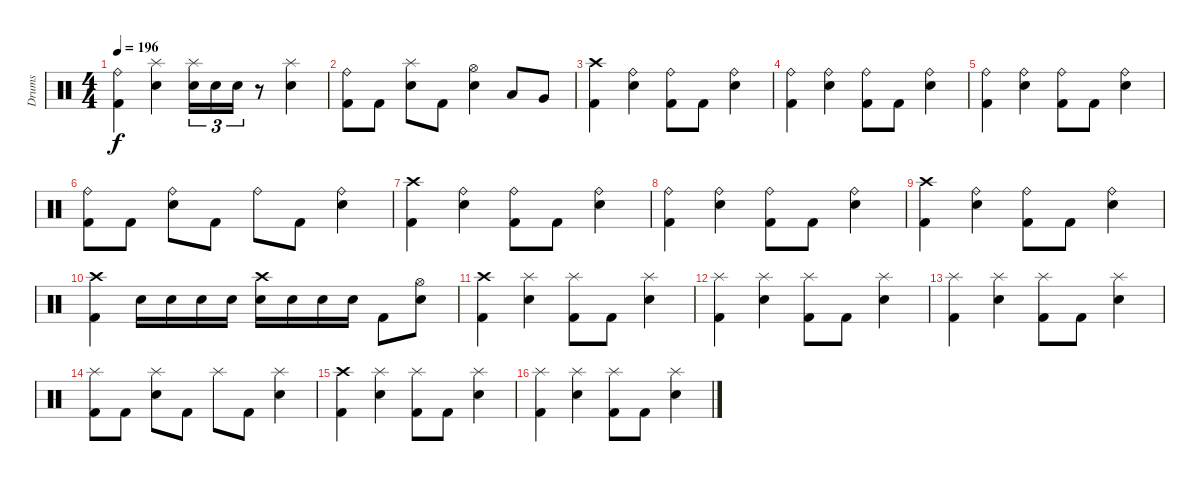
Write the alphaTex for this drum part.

\track ("Drums" "Drums") {instrument percussion}
\staff {score}
\articulation defaults
\ts (4 4)
\tempo 196
\clef neutral
\ks c
("Ride (bell)" "Kick (hit) 2").4{dy f} ("Splash (hit)" "Snare (hit) 2").4 ("Splash (hit)" "Snare (hit) 2").16{tu (3 2)} "Snare (hit) 2".16{tu (3 2)} "Snare (hit) 2".16{tu (3 2)} r.8 ("Splash (hit)" "Snare (hit) 2").4 |
("Ride (bell)" "Kick (hit) 2").8 "Kick (hit) 2".8 ("Splash (hit)" "Snare (hit) 2").8 "Kick (hit) 2".8 ("Hi-Hat (open)" "Snare (hit) 2").4 "Low Tom (hit)".8 "Very Low Tom (hit)".8 |
("Crash high (hit)" "Kick (hit) 2").4 ("Ride (bell)" "Snare (hit) 2").4 ("Ride (bell)" "Kick (hit) 2").8 "Kick (hit) 2".8 ("Ride (bell)" "Snare (hit) 2").4 |
("Ride (bell)" "Kick (hit) 2").4 ("Ride (bell)" "Snare (hit) 2").4 ("Ride (bell)" "Kick (hit) 2").8 "Kick (hit) 2".8 ("Ride (bell)" "Snare (hit) 2").4 |
("Ride (bell)" "Kick (hit) 2").4 ("Ride (bell)" "Snare (hit) 2").4 ("Ride (bell)" "Kick (hit) 2").8 "Kick (hit) 2".8 ("Ride (bell)" "Snare (hit) 2").4 |
("Ride (bell)" "Kick (hit) 2").8 "Kick (hit) 2".8 ("Ride (bell)" "Snare (hit) 2").8 "Kick (hit) 2".8 "Ride (bell)".8 "Kick (hit) 2".8 ("Ride (bell)" "Snare (hit) 2").4 |
("Crash high (hit)" "Kick (hit) 2").4 ("Ride (bell)" "Snare (hit) 2").4 ("Ride (bell)" "Kick (hit) 2").8 "Kick (hit) 2".8 ("Ride (bell)" "Snare (hit) 2").4 |
("Ride (bell)" "Kick (hit) 2").4 ("Ride (bell)" "Snare (hit) 2").4 ("Ride (bell)" "Kick (hit) 2").8 "Kick (hit) 2".8 ("Ride (bell)" "Snare (hit) 2").4 |
("Crash high (hit)" "Kick (hit) 2").4 ("Ride (bell)" "Snare (hit) 2").4 ("Ride (bell)" "Kick (hit) 2").8 "Kick (hit) 2".8 ("Ride (bell)" "Snare (hit) 2").4 |
("Crash high (hit)" "Kick (hit) 2").4 "Snare (hit) 2".16 "Snare (hit) 2".16 "Snare (hit) 2".16 "Snare (hit) 2".16 ("Crash high (hit)" "Electric Snare (hit)").16 "Electric Snare (hit)".16 "Electric Snare (hit)".16 "Electric Snare (hit)".16 "Kick (hit) 2".8 ("Hi-Hat (open)" "Electric Snare (hit)").8 |
("Crash high (hit)" "Kick (hit) 2").4 ("Splash (hit)" "Snare (hit) 2").4 ("Splash (hit)" "Kick (hit) 2").8 "Kick (hit) 2".8 ("Splash (hit)" "Snare (hit) 2").4 |
("Splash (hit)" "Kick (hit) 2").4 ("Splash (hit)" "Snare (hit) 2").4 ("Splash (hit)" "Kick (hit) 2").8 "Kick (hit) 2".8 ("Splash (hit)" "Snare (hit) 2").4 |
("Splash (hit)" "Kick (hit) 2").4 ("Splash (hit)" "Snare (hit) 2").4 ("Splash (hit)" "Kick (hit) 2").8 "Kick (hit) 2".8 ("Splash (hit)" "Snare (hit) 2").4 |
("Splash (hit)" "Kick (hit) 2").8 "Kick (hit) 2".8 ("Splash (hit)" "Snare (hit) 2").8 "Kick (hit) 2".8 "Splash (hit)".8 "Kick (hit) 2".8 ("Splash (hit)" "Snare (hit) 2").4 |
("Crash high (hit)" "Kick (hit) 2").4 ("Splash (hit)" "Snare (hit) 2").4 ("Splash (hit)" "Kick (hit) 2").8 "Kick (hit) 2".8 ("Splash (hit)" "Snare (hit) 2").4 |
("Splash (hit)" "Kick (hit) 2").4 ("Splash (hit)" "Snare (hit) 2").4 ("Splash (hit)" "Kick (hit) 2").8 "Kick (hit) 2".8 ("Splash (hit)" "Snare (hit) 2").4
